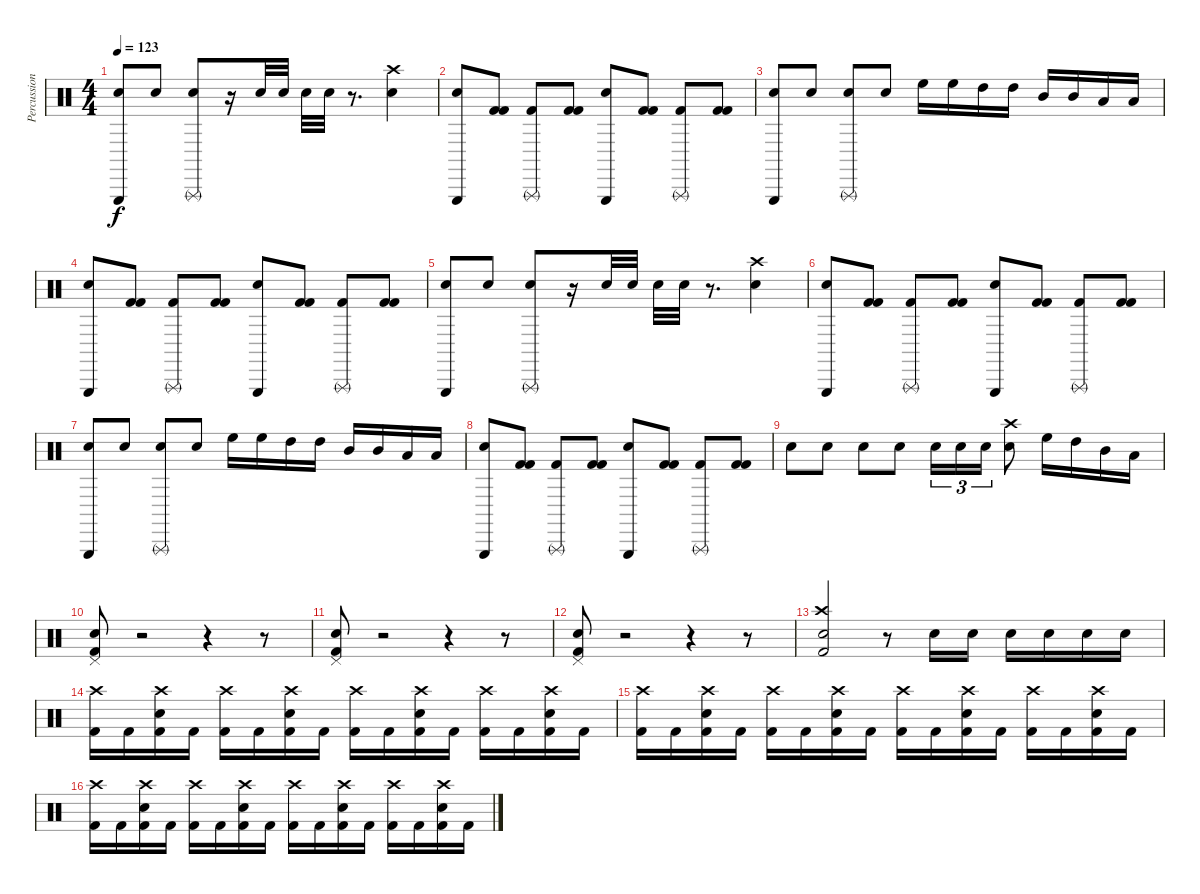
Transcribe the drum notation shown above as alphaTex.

\track ("Percussion" "Percussion") {instrument percussion}
\staff {score}
\articulation defaults
\ts (4 4)
\tempo 123
\clef neutral
\ks c
("Triangle (hit)" "Snare (hit) 2").8{dy f} "Electric Snare (hit)".8 ("Triangle (rnute)" "Snare (hit) 2").8 r.16 "Electric Snare (hit)".32 "Electric Snare (hit)".32 "Electric Snare (hit)".32 "Electric Snare (hit)".32 r.8{d} ("Crash high (hit)" "Electric Snare (hit)").4 |
("Triangle (hit)" "Electric Snare (hit)").8 ("Kick (hit) 2" "Kick (hit) 2").8 ("Triangle (rnute)" "Kick (hit) 2").8 ("Kick (hit) 2" "Kick (hit) 2").8 ("Triangle (hit)" "Electric Snare (hit)").8 ("Kick (hit) 2" "Kick (hit) 2").8 ("Triangle (rnute)" "Kick (hit) 2").8 ("Kick (hit) 2" "Kick (hit) 2").8 |
("Triangle (hit)" "Electric Snare (hit)").8 "Electric Snare (hit)".8 ("Triangle (rnute)" "Electric Snare (hit)").8 "Electric Snare (hit)".8 "High Floor Tom (hit)".16 "High Floor Tom (hit)".16 "High Tom (hit)".16 "High Tom (hit)".16 "Mid Tom (hit)".16 "Mid Tom (hit)".16 "Low Tom (hit)".16 "Low Tom (hit)".16 |
("Triangle (hit)" "Electric Snare (hit)").8 ("Kick (hit) 2" "Kick (hit) 2").8 ("Triangle (rnute)" "Kick (hit) 2").8 ("Kick (hit) 2" "Kick (hit) 2").8 ("Triangle (hit)" "Electric Snare (hit)").8 ("Kick (hit) 2" "Kick (hit) 2").8 ("Triangle (rnute)" "Kick (hit) 2").8 ("Kick (hit) 2" "Kick (hit) 2").8 |
("Triangle (hit)" "Snare (hit) 2").8 "Electric Snare (hit)".8 ("Triangle (rnute)" "Snare (hit) 2").8 r.16 "Electric Snare (hit)".32 "Electric Snare (hit)".32 "Electric Snare (hit)".32 "Electric Snare (hit)".32 r.8{d} ("Crash high (hit)" "Electric Snare (hit)").4 |
("Triangle (hit)" "Electric Snare (hit)").8 ("Kick (hit) 2" "Kick (hit) 2").8 ("Triangle (rnute)" "Kick (hit) 2").8 ("Kick (hit) 2" "Kick (hit) 2").8 ("Triangle (hit)" "Electric Snare (hit)").8 ("Kick (hit) 2" "Kick (hit) 2").8 ("Triangle (rnute)" "Kick (hit) 2").8 ("Kick (hit) 2" "Kick (hit) 2").8 |
("Triangle (hit)" "Electric Snare (hit)").8 "Electric Snare (hit)".8 ("Triangle (rnute)" "Electric Snare (hit)").8 "Electric Snare (hit)".8 "High Floor Tom (hit)".16 "High Floor Tom (hit)".16 "High Tom (hit)".16 "High Tom (hit)".16 "Mid Tom (hit)".16 "Mid Tom (hit)".16 "Low Tom (hit)".16 "Low Tom (hit)".16 |
("Triangle (hit)" "Electric Snare (hit)").8 ("Kick (hit) 2" "Kick (hit) 2").8 ("Triangle (rnute)" "Kick (hit) 2").8 ("Kick (hit) 2" "Kick (hit) 2").8 ("Triangle (hit)" "Electric Snare (hit)").8 ("Kick (hit) 2" "Kick (hit) 2").8 ("Triangle (rnute)" "Kick (hit) 2").8 ("Kick (hit) 2" "Kick (hit) 2").8 |
"Electric Snare (hit)".8 "Electric Snare (hit)".8 "Electric Snare (hit)".8 "Electric Snare (hit)".8 "Electric Snare (hit)".16{tu (3 2)} "Electric Snare (hit)".16{tu (3 2)} "Electric Snare (hit)".16{tu (3 2)} ("Crash high (hit)" "Electric Snare (hit)").8 "High Floor Tom (hit)".16 "High Tom (hit)".16 "Mid Tom (hit)".16 "Low Tom (hit)".16 |
("Pedal Hi-Hat (hit)" "Electric Snare (hit)" "Kick (hit) 2").8 r.2 r.4 r.8 |
("Pedal Hi-Hat (hit)" "Electric Snare (hit)" "Kick (hit) 2").8 r.2 r.4 r.8 |
("Pedal Hi-Hat (hit)" "Electric Snare (hit)" "Kick (hit) 2").8 r.2 r.4 r.8 |
("Crash high (hit)" "Electric Snare (hit)" "Kick (hit) 2").2 r.8 "Electric Snare (hit)".16 "Electric Snare (hit)".16 "Electric Snare (hit)".16 "Electric Snare (hit)".16 "Electric Snare (hit)".16 "Electric Snare (hit)".16 |
("Crash high (hit)" "Kick (hit) 2").16 "Kick (hit) 2".16 ("Crash high (hit)" "Electric Snare (hit)" "Kick (hit) 2").16 "Kick (hit) 2".16 ("Crash high (hit)" "Kick (hit) 2").16 "Kick (hit) 2".16 ("Crash high (hit)" "Electric Snare (hit)" "Kick (hit) 2").16 "Kick (hit) 2".16 ("Crash high (hit)" "Kick (hit) 2").16 "Kick (hit) 2".16 ("Crash high (hit)" "Electric Snare (hit)" "Kick (hit) 2").16 "Kick (hit) 2".16 ("Crash high (hit)" "Kick (hit) 2").16 "Kick (hit) 2".16 ("Crash high (hit)" "Electric Snare (hit)" "Kick (hit) 2").16 "Kick (hit) 2".16 |
("Crash high (hit)" "Kick (hit) 2").16 "Kick (hit) 2".16 ("Crash high (hit)" "Electric Snare (hit)" "Kick (hit) 2").16 "Kick (hit) 2".16 ("Crash high (hit)" "Kick (hit) 2").16 "Kick (hit) 2".16 ("Crash high (hit)" "Electric Snare (hit)" "Kick (hit) 2").16 "Kick (hit) 2".16 ("Crash high (hit)" "Kick (hit) 2").16 "Kick (hit) 2".16 ("Crash high (hit)" "Electric Snare (hit)" "Kick (hit) 2").16 "Kick (hit) 2".16 ("Crash high (hit)" "Kick (hit) 2").16 "Kick (hit) 2".16 ("Crash high (hit)" "Electric Snare (hit)" "Kick (hit) 2").16 "Kick (hit) 2".16 |
("Crash high (hit)" "Kick (hit) 2").16 "Kick (hit) 2".16 ("Crash high (hit)" "Electric Snare (hit)" "Kick (hit) 2").16 "Kick (hit) 2".16 ("Crash high (hit)" "Kick (hit) 2").16 "Kick (hit) 2".16 ("Crash high (hit)" "Electric Snare (hit)" "Kick (hit) 2").16 "Kick (hit) 2".16 ("Crash high (hit)" "Kick (hit) 2").16 "Kick (hit) 2".16 ("Crash high (hit)" "Electric Snare (hit)" "Kick (hit) 2").16 "Kick (hit) 2".16 ("Crash high (hit)" "Kick (hit) 2").16 "Kick (hit) 2".16 ("Crash high (hit)" "Electric Snare (hit)" "Kick (hit) 2").16 "Kick (hit) 2".16
